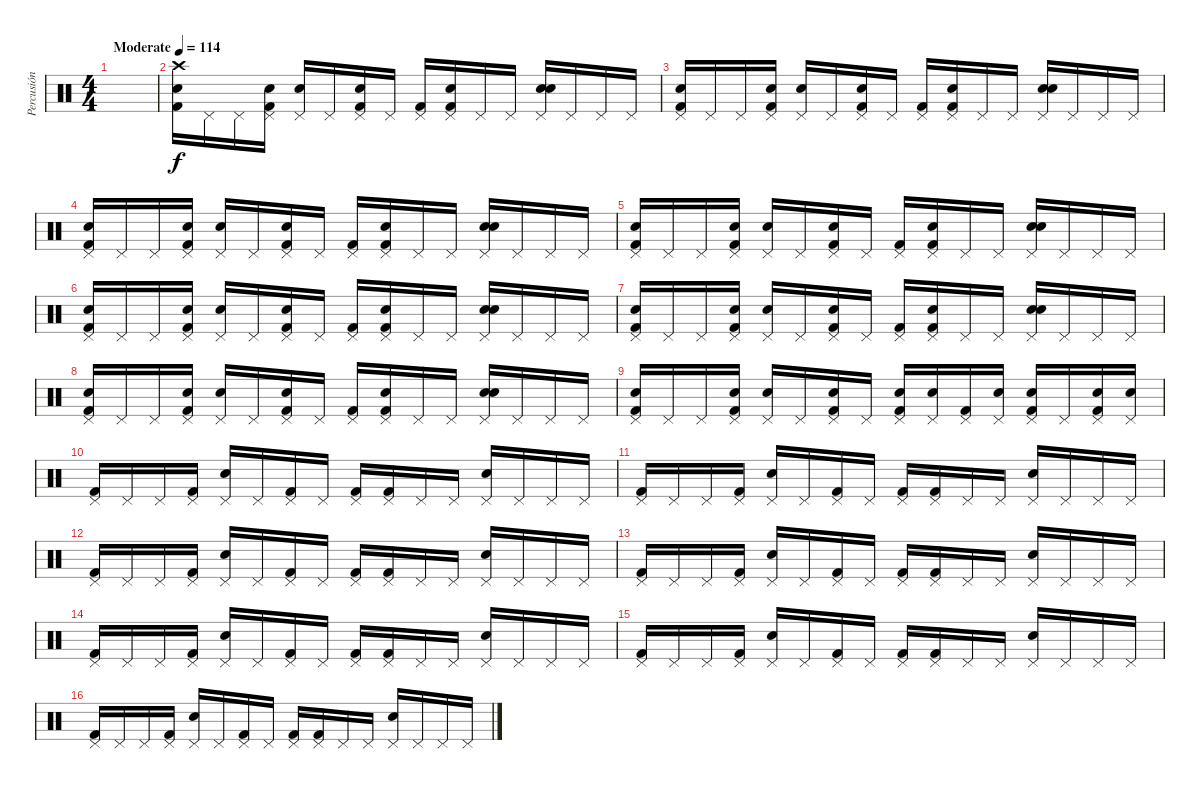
\track ("Percusión" "Percusión") {instrument percussion}
\staff {score}
\articulation defaults
\ts (4 4)
\tempo (114 "Moderate")
\clef neutral
\ks c
|
("Crash high (hit)" "Hand Clap (hit)" "Kick (hit) 2").16 "Pedal Hi-Hat (hit)".16 "Pedal Hi-Hat (hit)".16 ("Pedal Hi-Hat (hit)" "Hand Clap (hit)" "Kick (hit) 2").16 ("Pedal Hi-Hat (hit)" "Snare (hit) 2").16 "Pedal Hi-Hat (hit)".16 ("Pedal Hi-Hat (hit)" "Hand Clap (hit)" "Kick (hit) 2").16 "Pedal Hi-Hat (hit)".16 ("Pedal Hi-Hat (hit)" "Kick (hit) 2").16 ("Pedal Hi-Hat (hit)" "Hand Clap (hit)" "Kick (hit) 2").16 "Pedal Hi-Hat (hit)".16 "Pedal Hi-Hat (hit)".16 ("Pedal Hi-Hat (hit)" "Hand Clap (hit)" "Snare (hit) 2").16 "Pedal Hi-Hat (hit)".16 "Pedal Hi-Hat (hit)".16 "Pedal Hi-Hat (hit)".16 |
("Pedal Hi-Hat (hit)" "Hand Clap (hit)" "Kick (hit) 2").16 "Pedal Hi-Hat (hit)".16 "Pedal Hi-Hat (hit)".16 ("Pedal Hi-Hat (hit)" "Hand Clap (hit)" "Kick (hit) 2").16 ("Pedal Hi-Hat (hit)" "Snare (hit) 2").16 "Pedal Hi-Hat (hit)".16 ("Pedal Hi-Hat (hit)" "Hand Clap (hit)" "Kick (hit) 2").16 "Pedal Hi-Hat (hit)".16 ("Pedal Hi-Hat (hit)" "Kick (hit) 2").16 ("Pedal Hi-Hat (hit)" "Hand Clap (hit)" "Kick (hit) 2").16 "Pedal Hi-Hat (hit)".16 "Pedal Hi-Hat (hit)".16 ("Pedal Hi-Hat (hit)" "Hand Clap (hit)" "Snare (hit) 2").16 "Pedal Hi-Hat (hit)".16 "Pedal Hi-Hat (hit)".16 "Pedal Hi-Hat (hit)".16 |
("Pedal Hi-Hat (hit)" "Hand Clap (hit)" "Kick (hit) 2").16 "Pedal Hi-Hat (hit)".16 "Pedal Hi-Hat (hit)".16 ("Pedal Hi-Hat (hit)" "Hand Clap (hit)" "Kick (hit) 2").16 ("Pedal Hi-Hat (hit)" "Snare (hit) 2").16 "Pedal Hi-Hat (hit)".16 ("Pedal Hi-Hat (hit)" "Hand Clap (hit)" "Kick (hit) 2").16 "Pedal Hi-Hat (hit)".16 ("Pedal Hi-Hat (hit)" "Kick (hit) 2").16 ("Pedal Hi-Hat (hit)" "Hand Clap (hit)" "Kick (hit) 2").16 "Pedal Hi-Hat (hit)".16 "Pedal Hi-Hat (hit)".16 ("Pedal Hi-Hat (hit)" "Hand Clap (hit)" "Snare (hit) 2").16 "Pedal Hi-Hat (hit)".16 "Pedal Hi-Hat (hit)".16 "Pedal Hi-Hat (hit)".16 |
("Pedal Hi-Hat (hit)" "Hand Clap (hit)" "Kick (hit) 2").16 "Pedal Hi-Hat (hit)".16 "Pedal Hi-Hat (hit)".16 ("Pedal Hi-Hat (hit)" "Hand Clap (hit)" "Kick (hit) 2").16 ("Pedal Hi-Hat (hit)" "Snare (hit) 2").16 "Pedal Hi-Hat (hit)".16 ("Pedal Hi-Hat (hit)" "Hand Clap (hit)" "Kick (hit) 2").16 "Pedal Hi-Hat (hit)".16 ("Pedal Hi-Hat (hit)" "Kick (hit) 2").16 ("Pedal Hi-Hat (hit)" "Hand Clap (hit)" "Kick (hit) 2").16 "Pedal Hi-Hat (hit)".16 "Pedal Hi-Hat (hit)".16 ("Pedal Hi-Hat (hit)" "Hand Clap (hit)" "Snare (hit) 2").16 "Pedal Hi-Hat (hit)".16 "Pedal Hi-Hat (hit)".16 "Pedal Hi-Hat (hit)".16 |
("Pedal Hi-Hat (hit)" "Hand Clap (hit)" "Kick (hit) 2").16 "Pedal Hi-Hat (hit)".16 "Pedal Hi-Hat (hit)".16 ("Pedal Hi-Hat (hit)" "Hand Clap (hit)" "Kick (hit) 2").16 ("Pedal Hi-Hat (hit)" "Snare (hit) 2").16 "Pedal Hi-Hat (hit)".16 ("Pedal Hi-Hat (hit)" "Hand Clap (hit)" "Kick (hit) 2").16 "Pedal Hi-Hat (hit)".16 ("Pedal Hi-Hat (hit)" "Kick (hit) 2").16 ("Pedal Hi-Hat (hit)" "Hand Clap (hit)" "Kick (hit) 2").16 "Pedal Hi-Hat (hit)".16 "Pedal Hi-Hat (hit)".16 ("Pedal Hi-Hat (hit)" "Hand Clap (hit)" "Snare (hit) 2").16 "Pedal Hi-Hat (hit)".16 "Pedal Hi-Hat (hit)".16 "Pedal Hi-Hat (hit)".16 |
("Pedal Hi-Hat (hit)" "Hand Clap (hit)" "Kick (hit) 2").16 "Pedal Hi-Hat (hit)".16 "Pedal Hi-Hat (hit)".16 ("Pedal Hi-Hat (hit)" "Hand Clap (hit)" "Kick (hit) 2").16 ("Pedal Hi-Hat (hit)" "Snare (hit) 2").16 "Pedal Hi-Hat (hit)".16 ("Pedal Hi-Hat (hit)" "Hand Clap (hit)" "Kick (hit) 2").16 "Pedal Hi-Hat (hit)".16 ("Pedal Hi-Hat (hit)" "Kick (hit) 2").16 ("Pedal Hi-Hat (hit)" "Hand Clap (hit)" "Kick (hit) 2").16 "Pedal Hi-Hat (hit)".16 "Pedal Hi-Hat (hit)".16 ("Pedal Hi-Hat (hit)" "Hand Clap (hit)" "Snare (hit) 2").16 "Pedal Hi-Hat (hit)".16 "Pedal Hi-Hat (hit)".16 "Pedal Hi-Hat (hit)".16 |
("Pedal Hi-Hat (hit)" "Hand Clap (hit)" "Kick (hit) 2").16 "Pedal Hi-Hat (hit)".16 "Pedal Hi-Hat (hit)".16 ("Pedal Hi-Hat (hit)" "Hand Clap (hit)" "Kick (hit) 2").16 ("Pedal Hi-Hat (hit)" "Snare (hit) 2").16 "Pedal Hi-Hat (hit)".16 ("Pedal Hi-Hat (hit)" "Hand Clap (hit)" "Kick (hit) 2").16 "Pedal Hi-Hat (hit)".16 ("Pedal Hi-Hat (hit)" "Kick (hit) 2").16 ("Pedal Hi-Hat (hit)" "Hand Clap (hit)" "Kick (hit) 2").16 "Pedal Hi-Hat (hit)".16 "Pedal Hi-Hat (hit)".16 ("Pedal Hi-Hat (hit)" "Hand Clap (hit)" "Snare (hit) 2").16 "Pedal Hi-Hat (hit)".16 "Pedal Hi-Hat (hit)".16 "Pedal Hi-Hat (hit)".16 |
("Pedal Hi-Hat (hit)" "Hand Clap (hit)" "Kick (hit) 2").16 "Pedal Hi-Hat (hit)".16 "Pedal Hi-Hat (hit)".16 ("Pedal Hi-Hat (hit)" "Hand Clap (hit)" "Kick (hit) 2").16 ("Pedal Hi-Hat (hit)" "Snare (hit) 2").16 "Pedal Hi-Hat (hit)".16 ("Pedal Hi-Hat (hit)" "Hand Clap (hit)" "Kick (hit) 2").16 "Pedal Hi-Hat (hit)".16 ("Pedal Hi-Hat (hit)" "Snare (hit) 2" "Kick (hit) 2").16 ("Pedal Hi-Hat (hit)" "Hand Clap (hit)").16 ("Pedal Hi-Hat (hit)" "Kick (hit) 2").16 ("Pedal Hi-Hat (hit)" "Snare (hit) 2").16 ("Pedal Hi-Hat (hit)" "Hand Clap (hit)" "Kick (hit) 2").16 "Pedal Hi-Hat (hit)".16 ("Pedal Hi-Hat (hit)" "Snare (hit) 2" "Kick (hit) 2").16 ("Pedal Hi-Hat (hit)" "Snare (hit) 2").16 |
("Pedal Hi-Hat (hit)" "Kick (hit) 2").16 "Pedal Hi-Hat (hit)".16 "Pedal Hi-Hat (hit)".16 ("Pedal Hi-Hat (hit)" "Kick (hit) 2").16 ("Pedal Hi-Hat (hit)" "Snare (hit) 2").16 "Pedal Hi-Hat (hit)".16 ("Pedal Hi-Hat (hit)" "Kick (hit) 2").16 "Pedal Hi-Hat (hit)".16 ("Pedal Hi-Hat (hit)" "Kick (hit) 2").16 ("Pedal Hi-Hat (hit)" "Kick (hit) 2").16 "Pedal Hi-Hat (hit)".16 "Pedal Hi-Hat (hit)".16 ("Pedal Hi-Hat (hit)" "Snare (hit) 2").16 "Pedal Hi-Hat (hit)".16 "Pedal Hi-Hat (hit)".16 "Pedal Hi-Hat (hit)".16 |
("Pedal Hi-Hat (hit)" "Kick (hit) 2").16 "Pedal Hi-Hat (hit)".16 "Pedal Hi-Hat (hit)".16 ("Pedal Hi-Hat (hit)" "Kick (hit) 2").16 ("Pedal Hi-Hat (hit)" "Snare (hit) 2").16 "Pedal Hi-Hat (hit)".16 ("Pedal Hi-Hat (hit)" "Kick (hit) 2").16 "Pedal Hi-Hat (hit)".16 ("Pedal Hi-Hat (hit)" "Kick (hit) 2").16 ("Pedal Hi-Hat (hit)" "Kick (hit) 2").16 "Pedal Hi-Hat (hit)".16 "Pedal Hi-Hat (hit)".16 ("Pedal Hi-Hat (hit)" "Snare (hit) 2").16 "Pedal Hi-Hat (hit)".16 "Pedal Hi-Hat (hit)".16 "Pedal Hi-Hat (hit)".16 |
("Pedal Hi-Hat (hit)" "Kick (hit) 2").16 "Pedal Hi-Hat (hit)".16 "Pedal Hi-Hat (hit)".16 ("Pedal Hi-Hat (hit)" "Kick (hit) 2").16 ("Pedal Hi-Hat (hit)" "Snare (hit) 2").16 "Pedal Hi-Hat (hit)".16 ("Pedal Hi-Hat (hit)" "Kick (hit) 2").16 "Pedal Hi-Hat (hit)".16 ("Pedal Hi-Hat (hit)" "Kick (hit) 2").16 ("Pedal Hi-Hat (hit)" "Kick (hit) 2").16 "Pedal Hi-Hat (hit)".16 "Pedal Hi-Hat (hit)".16 ("Pedal Hi-Hat (hit)" "Snare (hit) 2").16 "Pedal Hi-Hat (hit)".16 "Pedal Hi-Hat (hit)".16 "Pedal Hi-Hat (hit)".16 |
("Pedal Hi-Hat (hit)" "Kick (hit) 2").16 "Pedal Hi-Hat (hit)".16 "Pedal Hi-Hat (hit)".16 ("Pedal Hi-Hat (hit)" "Kick (hit) 2").16 ("Pedal Hi-Hat (hit)" "Snare (hit) 2").16 "Pedal Hi-Hat (hit)".16 ("Pedal Hi-Hat (hit)" "Kick (hit) 2").16 "Pedal Hi-Hat (hit)".16 ("Pedal Hi-Hat (hit)" "Kick (hit) 2").16 ("Pedal Hi-Hat (hit)" "Kick (hit) 2").16 "Pedal Hi-Hat (hit)".16 "Pedal Hi-Hat (hit)".16 ("Pedal Hi-Hat (hit)" "Snare (hit) 2").16 "Pedal Hi-Hat (hit)".16 "Pedal Hi-Hat (hit)".16 "Pedal Hi-Hat (hit)".16 |
("Pedal Hi-Hat (hit)" "Kick (hit) 2").16 "Pedal Hi-Hat (hit)".16 "Pedal Hi-Hat (hit)".16 ("Pedal Hi-Hat (hit)" "Kick (hit) 2").16 ("Pedal Hi-Hat (hit)" "Snare (hit) 2").16 "Pedal Hi-Hat (hit)".16 ("Pedal Hi-Hat (hit)" "Kick (hit) 2").16 "Pedal Hi-Hat (hit)".16 ("Pedal Hi-Hat (hit)" "Kick (hit) 2").16 ("Pedal Hi-Hat (hit)" "Kick (hit) 2").16 "Pedal Hi-Hat (hit)".16 "Pedal Hi-Hat (hit)".16 ("Pedal Hi-Hat (hit)" "Snare (hit) 2").16 "Pedal Hi-Hat (hit)".16 "Pedal Hi-Hat (hit)".16 "Pedal Hi-Hat (hit)".16 |
("Pedal Hi-Hat (hit)" "Kick (hit) 2").16 "Pedal Hi-Hat (hit)".16 "Pedal Hi-Hat (hit)".16 ("Pedal Hi-Hat (hit)" "Kick (hit) 2").16 ("Pedal Hi-Hat (hit)" "Snare (hit) 2").16 "Pedal Hi-Hat (hit)".16 ("Pedal Hi-Hat (hit)" "Kick (hit) 2").16 "Pedal Hi-Hat (hit)".16 ("Pedal Hi-Hat (hit)" "Kick (hit) 2").16 ("Pedal Hi-Hat (hit)" "Kick (hit) 2").16 "Pedal Hi-Hat (hit)".16 "Pedal Hi-Hat (hit)".16 ("Pedal Hi-Hat (hit)" "Snare (hit) 2").16 "Pedal Hi-Hat (hit)".16 "Pedal Hi-Hat (hit)".16 "Pedal Hi-Hat (hit)".16 |
("Pedal Hi-Hat (hit)" "Kick (hit) 2").16 "Pedal Hi-Hat (hit)".16 "Pedal Hi-Hat (hit)".16 ("Pedal Hi-Hat (hit)" "Kick (hit) 2").16 ("Pedal Hi-Hat (hit)" "Snare (hit) 2").16 "Pedal Hi-Hat (hit)".16 ("Pedal Hi-Hat (hit)" "Kick (hit) 2").16 "Pedal Hi-Hat (hit)".16 ("Pedal Hi-Hat (hit)" "Kick (hit) 2").16 ("Pedal Hi-Hat (hit)" "Kick (hit) 2").16 "Pedal Hi-Hat (hit)".16 "Pedal Hi-Hat (hit)".16 ("Pedal Hi-Hat (hit)" "Snare (hit) 2").16 "Pedal Hi-Hat (hit)".16 "Pedal Hi-Hat (hit)".16 "Pedal Hi-Hat (hit)".16
